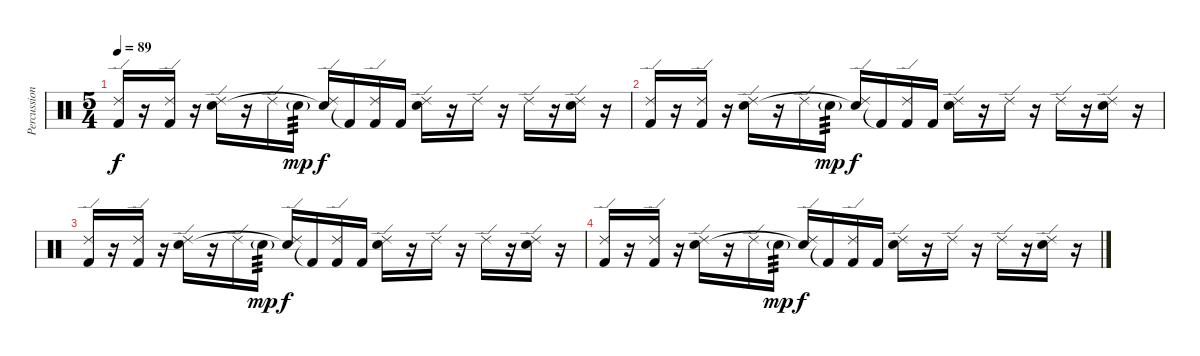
\track ("Percussion" "Percussion") {instrument percussion}
\staff {score}
\articulation defaults
\ts (5 4)
\tempo 89
\clef neutral
\ks c
("Ride (edge) 2" "Kick (hit) 2").16{dy f volume 0} r.16 ("Ride (edge) 2" "Kick (hit) 2").16 r.16 ("Ride (edge) 2" "Snare (hit) 2").16 r.16 "Ride (edge) 2".16 "Snare (hit) 2"{g}.16{tp 3 dy mp} ("Ride (edge) 2" "Snare (hit)"{t}).16{dy f} "Kick (hit) 2"{t}.16 ("Ride (edge) 2" "Kick (hit) 2").16 "Kick (hit) 2".16 ("Ride (edge) 2" "Snare (hit) 2").16 r.16 "Ride (edge) 2".16 r.16 "Ride (edge) 2".16 r.16 ("Ride (edge) 2" "Snare (hit) 2").16 r.16 |
("Ride (edge) 2" "Kick (hit) 2").16 r.16 ("Ride (edge) 2" "Kick (hit) 2").16 r.16 ("Ride (edge) 2" "Snare (hit) 2").16 r.16 "Ride (edge) 2".16 "Snare (hit) 2"{g}.16{tp 3 dy mp} ("Ride (edge) 2" "Snare (hit)"{t}).16{dy f} "Kick (hit) 2"{t}.16 ("Ride (edge) 2" "Kick (hit) 2").16 "Kick (hit) 2".16 ("Ride (edge) 2" "Snare (hit) 2").16 r.16 "Ride (edge) 2".16 r.16 "Ride (edge) 2".16 r.16 ("Ride (edge) 2" "Snare (hit) 2").16 r.16 |
("Ride (edge) 2" "Kick (hit) 2").16 r.16 ("Ride (edge) 2" "Kick (hit) 2").16 r.16 ("Ride (edge) 2" "Snare (hit) 2").16 r.16 "Ride (edge) 2".16 "Snare (hit) 2"{g}.16{tp 3 dy mp} ("Ride (edge) 2" "Snare (hit)"{t}).16{dy f} "Kick (hit) 2"{t}.16 ("Ride (edge) 2" "Kick (hit) 2").16 "Kick (hit) 2".16 ("Ride (edge) 2" "Snare (hit) 2").16 r.16 "Ride (edge) 2".16 r.16 "Ride (edge) 2".16 r.16 ("Ride (edge) 2" "Snare (hit) 2").16 r.16 |
("Ride (edge) 2" "Kick (hit) 2").16 r.16 ("Ride (edge) 2" "Kick (hit) 2").16 r.16 ("Ride (edge) 2" "Snare (hit) 2").16 r.16 "Ride (edge) 2".16 "Snare (hit) 2"{g}.16{tp 3 dy mp} ("Ride (edge) 2" "Snare (hit)"{t}).16{dy f} "Kick (hit) 2"{t}.16 ("Ride (edge) 2" "Kick (hit) 2").16 "Kick (hit) 2".16 ("Ride (edge) 2" "Snare (hit) 2").16 r.16 "Ride (edge) 2".16 r.16 "Ride (edge) 2".16 r.16 ("Ride (edge) 2" "Snare (hit) 2").16 r.16
